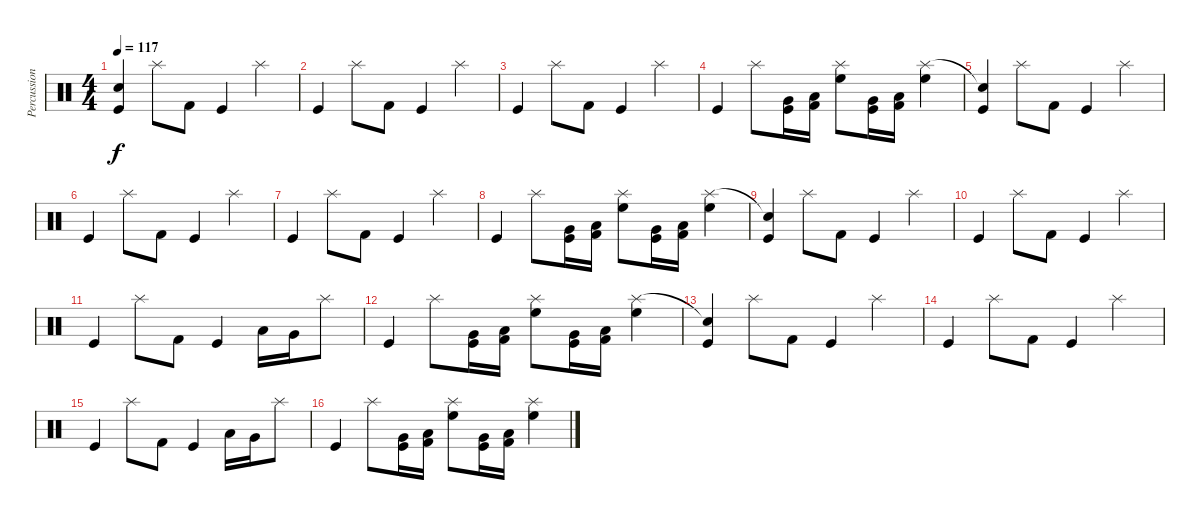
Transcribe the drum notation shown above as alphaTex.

\track ("Percussions" "Percussion") {instrument percussion}
\staff {score}
\articulation defaults
\ts (4 4)
\tempo 117
\clef neutral
\ks c
("Snare (hit)"{t} "Kick (hit)").4{dy f} "Splash (hit)".8 "Kick (hit) 2".8 "Kick (hit)".4 "Splash (hit)".4 |
"Kick (hit)".4 "Splash (hit)".8 "Kick (hit) 2".8 "Kick (hit)".4 "Splash (hit)".4 |
"Kick (hit)".4 "Splash (hit)".8 "Kick (hit) 2".8 "Kick (hit)".4 "Splash (hit)".4 |
"Kick (hit)".4 "Splash (hit)".8 ("Very Low Tom (hit)" "Kick (hit)").16 ("Low Tom (hit)" "Kick (hit) 2").16 ("Splash (hit)" "High Floor Tom (hit)").8 ("Very Low Tom (hit)" "Kick (hit)").16 ("Low Tom (hit)" "Kick (hit) 2").16 ("Splash (hit)" "High Floor Tom (hit)").4 |
("Snare (hit)"{t} "Kick (hit)").4 "Splash (hit)".8 "Kick (hit) 2".8 "Kick (hit)".4 "Splash (hit)".4 |
"Kick (hit)".4 "Splash (hit)".8 "Kick (hit) 2".8 "Kick (hit)".4 "Splash (hit)".4 |
"Kick (hit)".4 "Splash (hit)".8 "Kick (hit) 2".8 "Kick (hit)".4 "Splash (hit)".4 |
"Kick (hit)".4 "Splash (hit)".8 ("Very Low Tom (hit)" "Kick (hit)").16 ("Low Tom (hit)" "Kick (hit) 2").16 ("Splash (hit)" "High Floor Tom (hit)").8 ("Very Low Tom (hit)" "Kick (hit)").16 ("Low Tom (hit)" "Kick (hit) 2").16 ("Splash (hit)" "High Floor Tom (hit)").4 |
("Snare (hit)"{t} "Kick (hit)").4 "Splash (hit)".8 "Kick (hit) 2".8 "Kick (hit)".4 "Splash (hit)".4 |
"Kick (hit)".4 "Splash (hit)".8 "Kick (hit) 2".8 "Kick (hit)".4 "Splash (hit)".4 |
"Kick (hit)".4 "Splash (hit)".8 "Kick (hit) 2".8 "Kick (hit)".4 "Low Tom (hit)".16 "Very Low Tom (hit)".16 "Splash (hit)".8 |
"Kick (hit)".4 "Splash (hit)".8 ("Very Low Tom (hit)" "Kick (hit)").16 ("Low Tom (hit)" "Kick (hit) 2").16 ("Splash (hit)" "High Floor Tom (hit)").8 ("Very Low Tom (hit)" "Kick (hit)").16 ("Low Tom (hit)" "Kick (hit) 2").16 ("Splash (hit)" "High Floor Tom (hit)").4 |
("Snare (hit)"{t} "Kick (hit)").4 "Splash (hit)".8 "Kick (hit) 2".8 "Kick (hit)".4 "Splash (hit)".4 |
"Kick (hit)".4 "Splash (hit)".8 "Kick (hit) 2".8 "Kick (hit)".4 "Splash (hit)".4 |
"Kick (hit)".4 "Splash (hit)".8 "Kick (hit) 2".8 "Kick (hit)".4 "Low Tom (hit)".16 "Very Low Tom (hit)".16 "Splash (hit)".8 |
"Kick (hit)".4 "Splash (hit)".8 ("Very Low Tom (hit)" "Kick (hit)").16 ("Low Tom (hit)" "Kick (hit) 2").16 ("Splash (hit)" "High Floor Tom (hit)").8 ("Very Low Tom (hit)" "Kick (hit)").16 ("Low Tom (hit)" "Kick (hit) 2").16 ("Splash (hit)" "High Floor Tom (hit)").4
